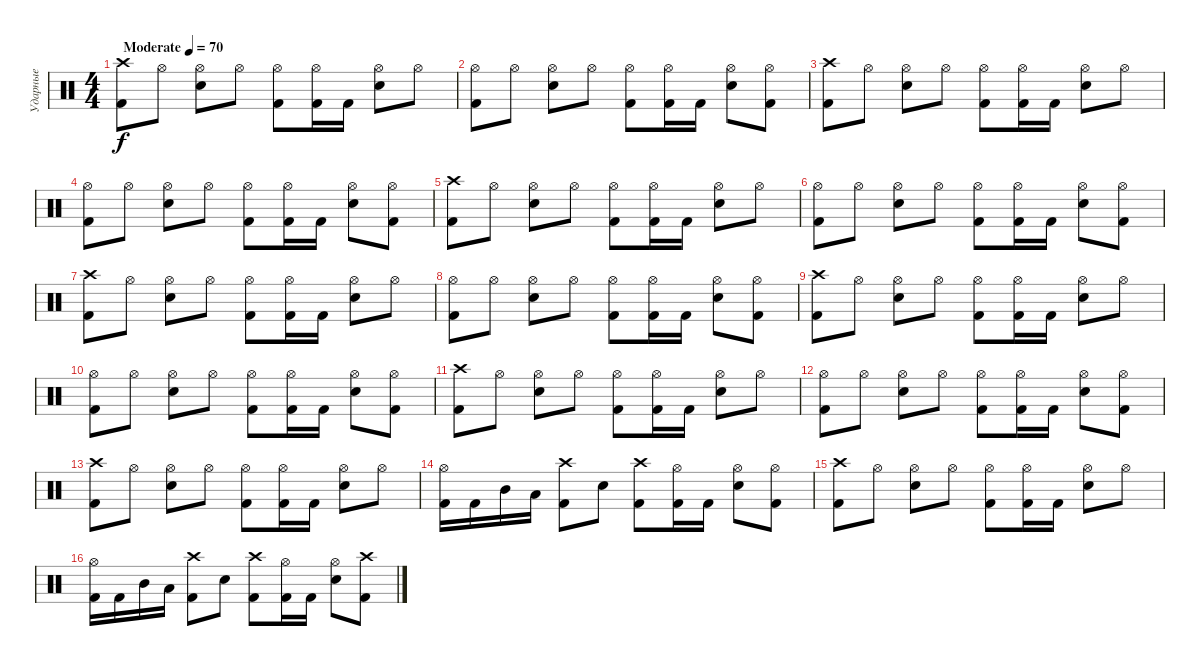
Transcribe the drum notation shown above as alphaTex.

\track ("Ударные" "Ударные") {instrument percussion}
\staff {score}
\articulation defaults
\ts (4 4)
\tempo (70 "Moderate")
\clef neutral
\ks c
("Crash high (hit)" "Kick (hit) 2").8{dy f} "Hi-Hat (open)".8 ("Hi-Hat (open)" "Snare (hit) 2").8 "Hi-Hat (open)".8 ("Hi-Hat (open)" "Kick (hit) 2").8 ("Hi-Hat (open)" "Kick (hit) 2").16 "Kick (hit) 2".16 ("Hi-Hat (open)" "Snare (hit) 2").8 "Hi-Hat (open)".8 |
("Hi-Hat (open)" "Kick (hit) 2").8 "Hi-Hat (open)".8 ("Hi-Hat (open)" "Snare (hit) 2").8 "Hi-Hat (open)".8 ("Hi-Hat (open)" "Kick (hit) 2").8 ("Hi-Hat (open)" "Kick (hit) 2").16 "Kick (hit) 2".16 ("Hi-Hat (open)" "Snare (hit) 2").8 ("Hi-Hat (open)" "Kick (hit) 2").8 |
("Crash high (hit)" "Kick (hit) 2").8 "Hi-Hat (open)".8 ("Hi-Hat (open)" "Snare (hit) 2").8 "Hi-Hat (open)".8 ("Hi-Hat (open)" "Kick (hit) 2").8 ("Hi-Hat (open)" "Kick (hit) 2").16 "Kick (hit) 2".16 ("Hi-Hat (open)" "Snare (hit) 2").8 "Hi-Hat (open)".8 |
("Hi-Hat (open)" "Kick (hit) 2").8 "Hi-Hat (open)".8 ("Hi-Hat (open)" "Snare (hit) 2").8 "Hi-Hat (open)".8 ("Hi-Hat (open)" "Kick (hit) 2").8 ("Hi-Hat (open)" "Kick (hit) 2").16 "Kick (hit) 2".16 ("Hi-Hat (open)" "Snare (hit) 2").8 ("Hi-Hat (open)" "Kick (hit) 2").8 |
("Crash high (hit)" "Kick (hit) 2").8 "Hi-Hat (open)".8 ("Hi-Hat (open)" "Snare (hit) 2").8 "Hi-Hat (open)".8 ("Hi-Hat (open)" "Kick (hit) 2").8 ("Hi-Hat (open)" "Kick (hit) 2").16 "Kick (hit) 2".16 ("Hi-Hat (open)" "Snare (hit) 2").8 "Hi-Hat (open)".8 |
("Hi-Hat (open)" "Kick (hit) 2").8 "Hi-Hat (open)".8 ("Hi-Hat (open)" "Snare (hit) 2").8 "Hi-Hat (open)".8 ("Hi-Hat (open)" "Kick (hit) 2").8 ("Hi-Hat (open)" "Kick (hit) 2").16 "Kick (hit) 2".16 ("Hi-Hat (open)" "Snare (hit) 2").8 ("Hi-Hat (open)" "Kick (hit) 2").8 |
("Crash high (hit)" "Kick (hit) 2").8 "Hi-Hat (open)".8 ("Hi-Hat (open)" "Snare (hit) 2").8 "Hi-Hat (open)".8 ("Hi-Hat (open)" "Kick (hit) 2").8 ("Hi-Hat (open)" "Kick (hit) 2").16 "Kick (hit) 2".16 ("Hi-Hat (open)" "Snare (hit) 2").8 "Hi-Hat (open)".8 |
("Hi-Hat (open)" "Kick (hit) 2").8 "Hi-Hat (open)".8 ("Hi-Hat (open)" "Snare (hit) 2").8 "Hi-Hat (open)".8 ("Hi-Hat (open)" "Kick (hit) 2").8 ("Hi-Hat (open)" "Kick (hit) 2").16 "Kick (hit) 2".16 ("Hi-Hat (open)" "Snare (hit) 2").8 ("Hi-Hat (open)" "Kick (hit) 2").8 |
("Crash high (hit)" "Kick (hit) 2").8 "Hi-Hat (open)".8 ("Hi-Hat (open)" "Snare (hit) 2").8 "Hi-Hat (open)".8 ("Hi-Hat (open)" "Kick (hit) 2").8 ("Hi-Hat (open)" "Kick (hit) 2").16 "Kick (hit) 2".16 ("Hi-Hat (open)" "Snare (hit) 2").8 "Hi-Hat (open)".8 |
("Hi-Hat (open)" "Kick (hit) 2").8 "Hi-Hat (open)".8 ("Hi-Hat (open)" "Snare (hit) 2").8 "Hi-Hat (open)".8 ("Hi-Hat (open)" "Kick (hit) 2").8 ("Hi-Hat (open)" "Kick (hit) 2").16 "Kick (hit) 2".16 ("Hi-Hat (open)" "Snare (hit) 2").8 ("Hi-Hat (open)" "Kick (hit) 2").8 |
("Crash high (hit)" "Kick (hit) 2").8 "Hi-Hat (open)".8 ("Hi-Hat (open)" "Snare (hit) 2").8 "Hi-Hat (open)".8 ("Hi-Hat (open)" "Kick (hit) 2").8 ("Hi-Hat (open)" "Kick (hit) 2").16 "Kick (hit) 2".16 ("Hi-Hat (open)" "Snare (hit) 2").8 "Hi-Hat (open)".8 |
("Hi-Hat (open)" "Kick (hit) 2").8 "Hi-Hat (open)".8 ("Hi-Hat (open)" "Snare (hit) 2").8 "Hi-Hat (open)".8 ("Hi-Hat (open)" "Kick (hit) 2").8 ("Hi-Hat (open)" "Kick (hit) 2").16 "Kick (hit) 2".16 ("Hi-Hat (open)" "Snare (hit) 2").8 ("Hi-Hat (open)" "Kick (hit) 2").8 |
("Crash high (hit)" "Kick (hit) 2").8 "Hi-Hat (open)".8 ("Hi-Hat (open)" "Snare (hit) 2").8 "Hi-Hat (open)".8 ("Hi-Hat (open)" "Kick (hit) 2").8 ("Hi-Hat (open)" "Kick (hit) 2").16 "Kick (hit) 2".16 ("Hi-Hat (open)" "Snare (hit) 2").8 "Hi-Hat (open)".8 |
("Hi-Hat (open)" "Kick (hit) 2").16 "Kick (hit) 2".16 "Mid Tom (hit)".16 "Low Tom (hit)".16 ("Crash high (hit)" "Kick (hit) 2").8 "Snare (hit) 2".8 ("Crash high (hit)" "Kick (hit) 2").8 ("Hi-Hat (open)" "Kick (hit) 2").16 "Kick (hit) 2".16 ("Hi-Hat (open)" "Snare (hit) 2").8 ("Hi-Hat (open)" "Kick (hit) 2").8 |
("Crash high (hit)" "Kick (hit) 2").8 "Hi-Hat (open)".8 ("Hi-Hat (open)" "Snare (hit) 2").8 "Hi-Hat (open)".8 ("Hi-Hat (open)" "Kick (hit) 2").8 ("Hi-Hat (open)" "Kick (hit) 2").16 "Kick (hit) 2".16 ("Hi-Hat (open)" "Snare (hit) 2").8 "Hi-Hat (open)".8 |
("Hi-Hat (open)" "Kick (hit) 2").16 "Kick (hit) 2".16 "Mid Tom (hit)".16 "Low Tom (hit)".16 ("Crash high (hit)" "Kick (hit) 2").8 "Snare (hit) 2".8 ("Crash high (hit)" "Kick (hit) 2").8 ("Hi-Hat (open)" "Kick (hit) 2").16 "Kick (hit) 2".16 ("Hi-Hat (open)" "Snare (hit) 2").8 ("Crash high (hit)" "Kick (hit) 2").8
